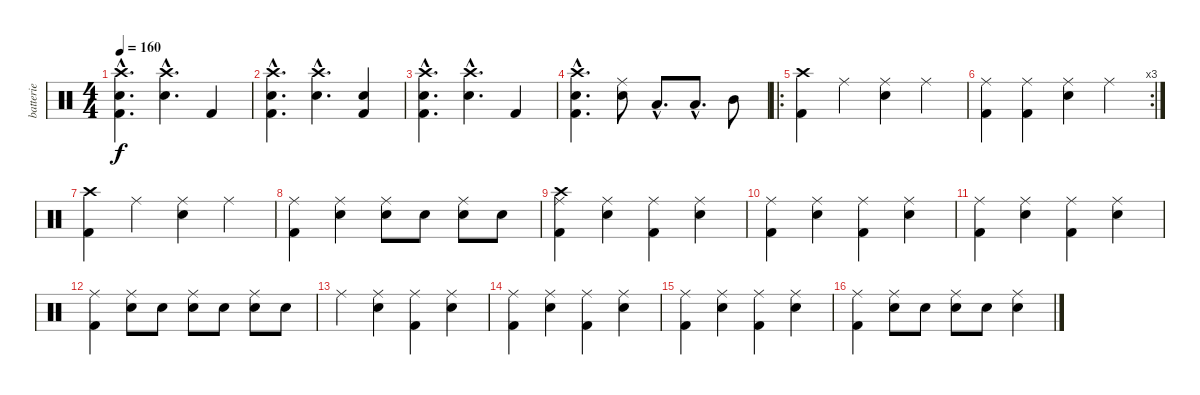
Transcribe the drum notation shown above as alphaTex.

\track ("batterie" "batterie") {instrument percussion}
\staff {score}
\articulation defaults
\ts (4 4)
\tempo 160
\clef neutral
\ks c
("Kick (hit) 2"{hac} "Snare (hit) 2"{hac} "Crash high (hit)"{hac}).4{d dy f} ("Snare (hit) 2"{hac} "Crash high (hit)"{hac}).4{d} "Kick (hit) 2".4 |
("Kick (hit) 2"{hac} "Snare (hit) 2"{hac} "Crash high (hit)"{hac}).4{d} ("Snare (hit) 2"{hac} "Crash high (hit)"{hac}).4{d} ("Snare (hit) 2" "Kick (hit) 2").4 |
("Kick (hit) 2"{hac} "Snare (hit) 2"{hac} "Crash high (hit)"{hac}).4{d} ("Snare (hit) 2"{hac} "Crash high (hit)"{hac}).4{d} "Kick (hit) 2".4 |
("Kick (hit) 2"{hac} "Snare (hit) 2"{hac} "Crash high (hit)"{hac}).4{d} ("Snare (hit) 2" "Ride (middle)").8 "Low Tom (hit)"{hac}.8{d} "Low Tom (hit)"{hac}.8{d} "Mid Tom (hit)".8 |
\ro
("Crash high (hit)" "Kick (hit) 2").4 "Ride (middle)".4 ("Ride (middle)" "Snare (hit) 2").4 "Ride (middle)".4 |
\rc 3
("Ride (middle)" "Kick (hit) 2").4 ("Ride (middle)" "Kick (hit) 2").4 ("Ride (middle)" "Snare (hit) 2").4 "Ride (middle)".4 |
("Crash high (hit)" "Kick (hit) 2").4 "Ride (middle)".4 ("Ride (middle)" "Snare (hit) 2").4 "Ride (middle)".4 |
("Kick (hit) 2" "Ride (middle)").4 ("Snare (hit) 2" "Ride (middle)").4 ("Snare (hit) 2" "Ride (middle)").8 "Snare (hit) 2".8 ("Snare (hit) 2" "Ride (middle)").8 "Snare (hit) 2".8 |
("Ride (middle)" "Kick (hit) 2" "Crash high (hit)").4 ("Ride (middle)" "Snare (hit) 2").4 ("Ride (middle)" "Kick (hit) 2").4 ("Ride (middle)" "Snare (hit) 2").4 |
("Ride (middle)" "Kick (hit) 2").4 ("Ride (middle)" "Snare (hit) 2").4 ("Ride (middle)" "Kick (hit) 2").4 ("Ride (middle)" "Snare (hit) 2").4 |
("Ride (middle)" "Kick (hit) 2").4 ("Ride (middle)" "Snare (hit) 2").4 ("Ride (middle)" "Kick (hit) 2").4 ("Ride (middle)" "Snare (hit) 2").4 |
("Ride (middle)" "Kick (hit) 2").4 ("Ride (middle)" "Snare (hit) 2").8 "Snare (hit) 2".8 ("Ride (middle)" "Snare (hit) 2").8 "Snare (hit) 2".8 ("Ride (middle)" "Snare (hit) 2").8 "Snare (hit) 2".8 |
"Ride (middle)".4 ("Ride (middle)" "Snare (hit) 2").4 ("Ride (middle)" "Kick (hit) 2").4 ("Ride (middle)" "Snare (hit) 2").4 |
("Ride (middle)" "Kick (hit) 2").4 ("Ride (middle)" "Snare (hit) 2").4 ("Ride (middle)" "Kick (hit) 2").4 ("Ride (middle)" "Snare (hit) 2").4 |
("Ride (middle)" "Kick (hit) 2").4 ("Ride (middle)" "Snare (hit) 2").4 ("Ride (middle)" "Kick (hit) 2").4 ("Ride (middle)" "Snare (hit) 2").4 |
("Ride (middle)" "Kick (hit) 2").4 ("Ride (middle)" "Snare (hit) 2").8 "Snare (hit) 2".8 ("Ride (middle)" "Snare (hit) 2").8 "Snare (hit) 2".8 ("Ride (middle)" "Snare (hit) 2").4
